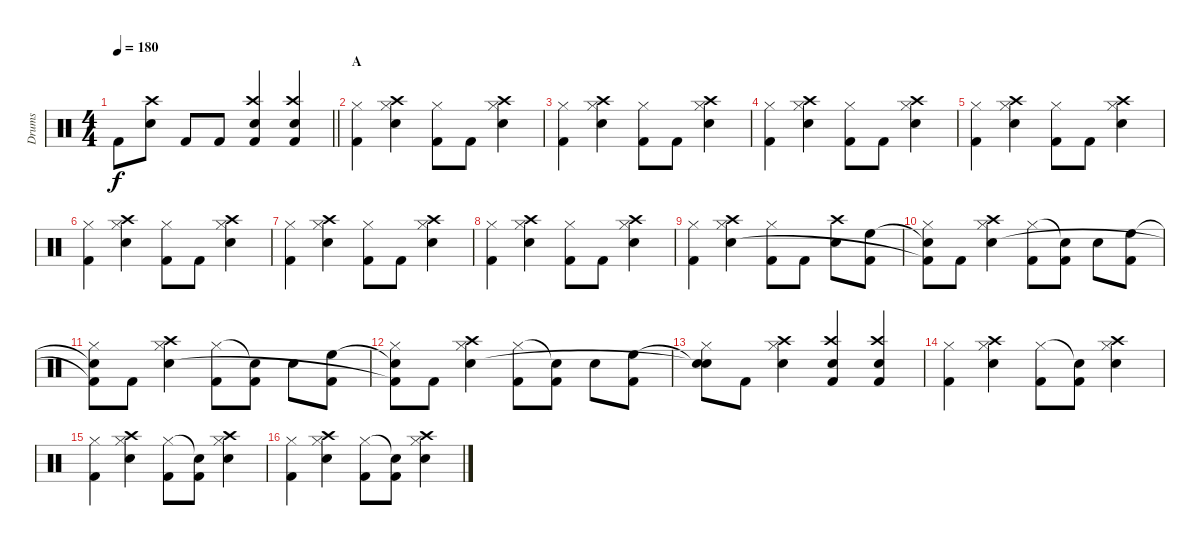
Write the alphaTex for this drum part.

\track ("Drums" "Drums") {instrument percussion}
\staff {score}
\articulation defaults
\ts (4 4)
\tempo 180
\clef neutral
\barLineRight lightlight
\ks c "Kick (hit) 2".8{dy f}
("Crash high (hit)" "Snare (hit) 2").8 "Kick (hit) 2".8 "Kick (hit) 2".8 ("Crash high (hit)" "Snare (hit) 2" "Kick (hit) 2").4 ("Crash high (hit)" "Snare (hit) 2" "Kick (hit) 2").4 |
\section ("" "A")
("Hi-Hat (closed)" "Kick (hit) 2").4 ("Crash high (hit)" "Hi-Hat (closed)" "Snare (hit) 2").4 ("Hi-Hat (closed)" "Kick (hit) 2").8 "Kick (hit) 2".8 ("Crash high (hit)" "Hi-Hat (closed)" "Snare (hit) 2").4 |
("Hi-Hat (closed)" "Kick (hit) 2").4 ("Crash high (hit)" "Hi-Hat (closed)" "Snare (hit) 2").4 ("Hi-Hat (closed)" "Kick (hit) 2").8 "Kick (hit) 2".8 ("Crash high (hit)" "Hi-Hat (closed)" "Snare (hit) 2").4 |
("Hi-Hat (closed)" "Kick (hit) 2").4 ("Crash high (hit)" "Hi-Hat (closed)" "Snare (hit) 2").4 ("Hi-Hat (closed)" "Kick (hit) 2").8 "Kick (hit) 2".8 ("Crash high (hit)" "Hi-Hat (closed)" "Snare (hit) 2").4 |
("Hi-Hat (closed)" "Kick (hit) 2").4 ("Crash high (hit)" "Hi-Hat (closed)" "Snare (hit) 2").4 ("Hi-Hat (closed)" "Kick (hit) 2").8 "Kick (hit) 2".8 ("Crash high (hit)" "Hi-Hat (closed)" "Snare (hit) 2").4 |
("Hi-Hat (closed)" "Kick (hit) 2").4 ("Crash high (hit)" "Hi-Hat (closed)" "Snare (hit) 2").4 ("Hi-Hat (closed)" "Kick (hit) 2").8 "Kick (hit) 2".8 ("Crash high (hit)" "Hi-Hat (closed)" "Snare (hit) 2").4 |
("Hi-Hat (closed)" "Kick (hit) 2").4 ("Crash high (hit)" "Hi-Hat (closed)" "Snare (hit) 2").4 ("Hi-Hat (closed)" "Kick (hit) 2").8 "Kick (hit) 2".8 ("Crash high (hit)" "Hi-Hat (closed)" "Snare (hit) 2").4 |
("Hi-Hat (closed)" "Kick (hit) 2").4 ("Crash high (hit)" "Hi-Hat (closed)" "Snare (hit) 2").4 ("Hi-Hat (closed)" "Kick (hit) 2").8 "Kick (hit) 2".8 ("Crash high (hit)" "Hi-Hat (closed)" "Snare (hit) 2").4 |
("Hi-Hat (closed)" "Kick (hit) 2").4 ("Crash high (hit)" "Hi-Hat (closed)" "Snare (hit) 2").4 ("Hi-Hat (closed)" "Kick (hit) 2").8 "Kick (hit) 2".8 ("Crash high (hit)" "Snare (hit) 2").8 ("High Floor Tom (hit)" "Kick (hit) 2").8 |
("Snare (hit)"{t} "Hi-Hat (closed)" "Kick (hit) 2"{t}).8 "Kick (hit) 2".8 ("Crash high (hit)" "Hi-Hat (closed)" "Snare (hit) 2").4 ("Hi-Hat (closed)" "Kick (hit) 2").8 ("Snare (hit)"{t} "Kick (hit) 2").8 "Snare (hit) 2".8 ("High Floor Tom (hit)" "Kick (hit) 2").8 |
("Snare (hit)"{t} "Hi-Hat (closed)" "Kick (hit) 2"{t}).8 "Kick (hit) 2".8 ("Crash high (hit)" "Hi-Hat (closed)" "Snare (hit) 2").4 ("Hi-Hat (closed)" "Kick (hit) 2").8 ("Snare (hit)"{t} "Kick (hit) 2").8 "Snare (hit) 2".8 ("High Floor Tom (hit)" "Kick (hit) 2").8 |
("Snare (hit)"{t} "Hi-Hat (closed)" "Kick (hit) 2"{t}).8 "Kick (hit) 2".8 ("Crash high (hit)" "Hi-Hat (closed)" "Snare (hit) 2").4 ("Hi-Hat (closed)" "Kick (hit) 2").8 ("Snare (hit)"{t} "Kick (hit) 2").8 "Snare (hit) 2".8 ("High Floor Tom (hit)" "Kick (hit) 2").8 |
("Snare (hit)"{t} "Hi-Hat (closed)" "Snare (hit)"{t}).8 "Kick (hit) 2".8 ("Crash high (hit)" "Hi-Hat (closed)" "Snare (hit) 2").4 ("Crash high (hit)" "Snare (hit) 2" "Kick (hit) 2").4 ("Crash high (hit)" "Snare (hit) 2" "Kick (hit) 2").4 |
("Hi-Hat (closed)" "Kick (hit) 2").4 ("Crash high (hit)" "Hi-Hat (closed)" "Snare (hit) 2").4 ("Hi-Hat (closed)" "Kick (hit) 2").8 ("Snare (hit)"{t} "Kick (hit) 2").8 ("Crash high (hit)" "Hi-Hat (closed)" "Snare (hit) 2").4 |
("Hi-Hat (closed)" "Kick (hit) 2").4 ("Crash high (hit)" "Hi-Hat (closed)" "Snare (hit) 2").4 ("Hi-Hat (closed)" "Kick (hit) 2").8 ("Snare (hit)"{t} "Kick (hit) 2").8 ("Crash high (hit)" "Hi-Hat (closed)" "Snare (hit) 2").4 |
("Hi-Hat (closed)" "Kick (hit) 2").4 ("Crash high (hit)" "Hi-Hat (closed)" "Snare (hit) 2").4 ("Hi-Hat (closed)" "Kick (hit) 2").8 ("Snare (hit)"{t} "Kick (hit) 2").8 ("Crash high (hit)" "Hi-Hat (closed)" "Snare (hit) 2").4
